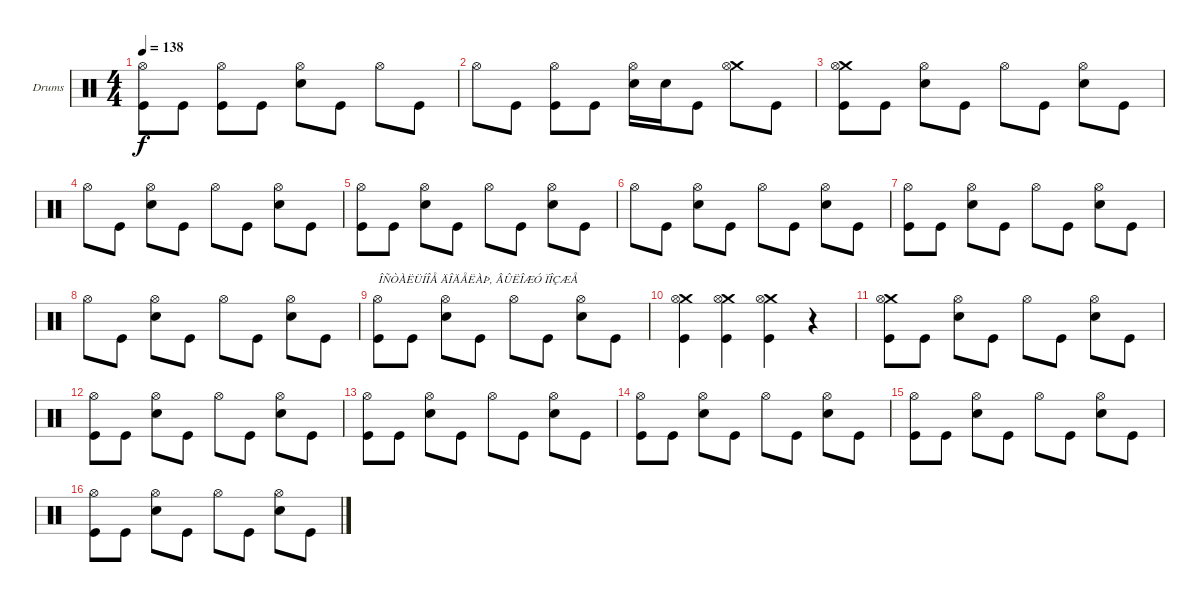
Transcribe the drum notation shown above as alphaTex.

\bracketExtendMode groupsimilarinstruments
\firstSystemTrackNameOrientation horizontal
\otherSystemsTrackNameOrientation horizontal
\track ("Drumkit" "Drums") {instrument percussion}
\staff {score}
\articulation defaults
\ts (4 4)
\tempo 138
\clef neutral
\ks c
("Hi-Hat (open)" "Kick (hit)").8{dy f} "Kick (hit)".8 ("Hi-Hat (open)" "Kick (hit)").8 "Kick (hit)".8 ("Snare (hit) 2" "Hi-Hat (open)").8 "Kick (hit)".8 "Hi-Hat (open)".8 "Kick (hit)".8 |
"Hi-Hat (open)".8 "Kick (hit)".8 ("Hi-Hat (open)" "Kick (hit)").8 "Kick (hit)".8 ("Snare (hit) 2" "Hi-Hat (open)").16 "Snare (hit) 2".16 "Kick (hit)".8 ("Crash medium (hit)" "Hi-Hat (open)").8 "Kick (hit)".8 |
("Crash medium (hit)" "Hi-Hat (open)" "Kick (hit)").8 "Kick (hit)".8 ("Snare (hit) 2" "Hi-Hat (open)").8 "Kick (hit)".8 "Hi-Hat (open)".8 "Kick (hit)".8 ("Snare (hit) 2" "Hi-Hat (open)").8 "Kick (hit)".8 |
"Hi-Hat (open)".8 "Kick (hit)".8 ("Snare (hit) 2" "Hi-Hat (open)").8 "Kick (hit)".8 "Hi-Hat (open)".8 "Kick (hit)".8 ("Snare (hit) 2" "Hi-Hat (open)").8 "Kick (hit)".8 |
("Hi-Hat (open)" "Kick (hit)").8 "Kick (hit)".8 ("Snare (hit) 2" "Hi-Hat (open)").8 "Kick (hit)".8 "Hi-Hat (open)".8 "Kick (hit)".8 ("Snare (hit) 2" "Hi-Hat (open)").8 "Kick (hit)".8 |
"Hi-Hat (open)".8 "Kick (hit)".8 ("Snare (hit) 2" "Hi-Hat (open)").8 "Kick (hit)".8 "Hi-Hat (open)".8 "Kick (hit)".8 ("Snare (hit) 2" "Hi-Hat (open)").8 "Kick (hit)".8 |
("Hi-Hat (open)" "Kick (hit)").8 "Kick (hit)".8 ("Snare (hit) 2" "Hi-Hat (open)").8 "Kick (hit)".8 "Hi-Hat (open)".8 "Kick (hit)".8 ("Snare (hit) 2" "Hi-Hat (open)").8 "Kick (hit)".8 |
"Hi-Hat (open)".8 "Kick (hit)".8 ("Snare (hit) 2" "Hi-Hat (open)").8 "Kick (hit)".8 "Hi-Hat (open)".8 "Kick (hit)".8 ("Snare (hit) 2" "Hi-Hat (open)").8 "Kick (hit)".8 |
("Hi-Hat (open)" "Kick (hit)").8{txt "ÎÑÒÀËÜÍÎÅ ÄÎÄÅËÀÞ, ÂÛËÎÆÓ ÏÎÇÆÅ"} "Kick (hit)".8 ("Snare (hit) 2" "Hi-Hat (open)").8 "Kick (hit)".8 "Hi-Hat (open)".8 "Kick (hit)".8 ("Snare (hit) 2" "Hi-Hat (open)").8 "Kick (hit)".8 |
("Crash medium (hit)" "Hi-Hat (open)" "Kick (hit)").4 ("Crash medium (hit)" "Hi-Hat (open)" "Kick (hit)").4 ("Crash medium (hit)" "Hi-Hat (open)" "Kick (hit)").4 r.4 |
("Crash medium (hit)" "Hi-Hat (open)" "Kick (hit)").8 "Kick (hit)".8 ("Snare (hit) 2" "Hi-Hat (open)").8 "Kick (hit)".8 "Hi-Hat (open)".8 "Kick (hit)".8 ("Snare (hit) 2" "Hi-Hat (open)").8 "Kick (hit)".8 |
("Hi-Hat (open)" "Kick (hit)").8 "Kick (hit)".8 ("Snare (hit) 2" "Hi-Hat (open)").8 "Kick (hit)".8 "Hi-Hat (open)".8 "Kick (hit)".8 ("Snare (hit) 2" "Hi-Hat (open)").8 "Kick (hit)".8 |
("Hi-Hat (open)" "Kick (hit)").8 "Kick (hit)".8 ("Snare (hit) 2" "Hi-Hat (open)").8 "Kick (hit)".8 "Hi-Hat (open)".8 "Kick (hit)".8 ("Snare (hit) 2" "Hi-Hat (open)").8 "Kick (hit)".8 |
("Hi-Hat (open)" "Kick (hit)").8 "Kick (hit)".8 ("Snare (hit) 2" "Hi-Hat (open)").8 "Kick (hit)".8 "Hi-Hat (open)".8 "Kick (hit)".8 ("Snare (hit) 2" "Hi-Hat (open)").8 "Kick (hit)".8 |
("Hi-Hat (open)" "Kick (hit)").8 "Kick (hit)".8 ("Snare (hit) 2" "Hi-Hat (open)").8 "Kick (hit)".8 "Hi-Hat (open)".8 "Kick (hit)".8 ("Snare (hit) 2" "Hi-Hat (open)").8 "Kick (hit)".8 |
("Hi-Hat (open)" "Kick (hit)").8 "Kick (hit)".8 ("Snare (hit) 2" "Hi-Hat (open)").8 "Kick (hit)".8 "Hi-Hat (open)".8 "Kick (hit)".8 ("Snare (hit) 2" "Hi-Hat (open)").8 "Kick (hit)".8
